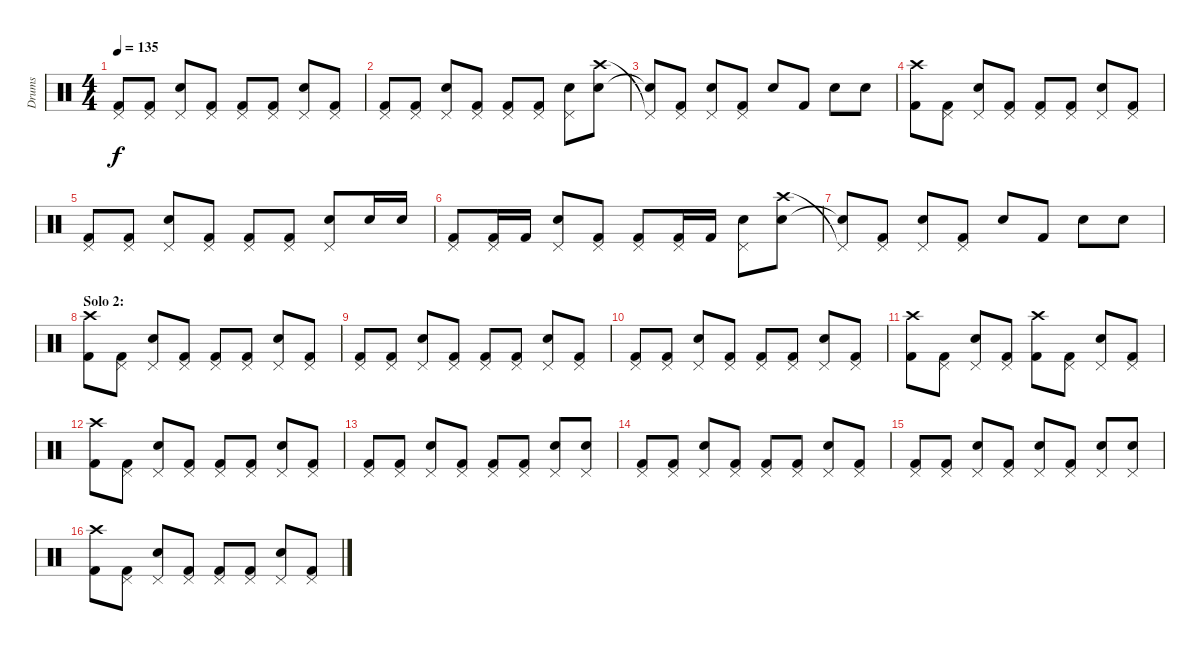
\track ("Drums" "Drums") {instrument percussion}
\staff {score}
\articulation defaults
\ts (4 4)
\tempo 135
\clef neutral
\ks c
("Pedal Hi-Hat (hit)" "Kick (hit) 2").8{dy f} ("Pedal Hi-Hat (hit)" "Kick (hit) 2").8 ("Pedal Hi-Hat (hit)" "Snare (hit) 2").8 ("Pedal Hi-Hat (hit)" "Kick (hit) 2").8 ("Pedal Hi-Hat (hit)" "Kick (hit) 2").8 ("Pedal Hi-Hat (hit)" "Kick (hit) 2").8 ("Pedal Hi-Hat (hit)" "Snare (hit) 2").8 ("Pedal Hi-Hat (hit)" "Kick (hit) 2").8 |
("Pedal Hi-Hat (hit)" "Kick (hit) 2").8 ("Pedal Hi-Hat (hit)" "Kick (hit) 2").8 ("Pedal Hi-Hat (hit)" "Snare (hit) 2").8 ("Pedal Hi-Hat (hit)" "Kick (hit) 2").8 ("Pedal Hi-Hat (hit)" "Kick (hit) 2").8 ("Pedal Hi-Hat (hit)" "Kick (hit) 2").8 ("Pedal Hi-Hat (hit)" "Snare (hit) 2").8 ("Crash high (hit)" "Snare (hit) 2").8 |
("Pedal Hi-Hat (hit)"{t} "Snare (hit)"{t}).8 ("Pedal Hi-Hat (hit)" "Kick (hit) 2").8 ("Pedal Hi-Hat (hit)" "Snare (hit) 2").8 ("Pedal Hi-Hat (hit)" "Kick (hit) 2").8 "Snare (hit) 2".8 "Kick (hit) 2".8 "Snare (hit) 2".8 "Snare (hit) 2".8 |
("Crash high (hit)" "Kick (hit) 2").8 ("Pedal Hi-Hat (hit)" "Kick (hit) 2").8 ("Pedal Hi-Hat (hit)" "Snare (hit) 2").8 ("Pedal Hi-Hat (hit)" "Kick (hit) 2").8 ("Pedal Hi-Hat (hit)" "Kick (hit) 2").8 ("Pedal Hi-Hat (hit)" "Kick (hit) 2").8 ("Pedal Hi-Hat (hit)" "Snare (hit) 2").8 ("Pedal Hi-Hat (hit)" "Kick (hit) 2").8 |
("Pedal Hi-Hat (hit)" "Kick (hit) 2").8 ("Pedal Hi-Hat (hit)" "Kick (hit) 2").8 ("Pedal Hi-Hat (hit)" "Snare (hit) 2").8 ("Pedal Hi-Hat (hit)" "Kick (hit) 2").8 ("Pedal Hi-Hat (hit)" "Kick (hit) 2").8 ("Pedal Hi-Hat (hit)" "Kick (hit) 2").8 ("Pedal Hi-Hat (hit)" "Snare (hit) 2").8 "Snare (hit) 2".16 "Snare (hit) 2".16 |
("Pedal Hi-Hat (hit)" "Kick (hit) 2").8 ("Pedal Hi-Hat (hit)" "Kick (hit) 2").16 "Kick (hit) 2".16 ("Pedal Hi-Hat (hit)" "Snare (hit) 2").8 ("Pedal Hi-Hat (hit)" "Kick (hit) 2").8 ("Pedal Hi-Hat (hit)" "Kick (hit) 2").8 ("Pedal Hi-Hat (hit)" "Kick (hit) 2").16 "Kick (hit) 2".16 ("Pedal Hi-Hat (hit)" "Snare (hit) 2").8 ("Crash high (hit)" "Snare (hit) 2").8 |
("Pedal Hi-Hat (hit)"{t} "Snare (hit)"{t}).8 ("Pedal Hi-Hat (hit)" "Kick (hit) 2").8 ("Pedal Hi-Hat (hit)" "Snare (hit) 2").8 ("Pedal Hi-Hat (hit)" "Kick (hit) 2").8 "Snare (hit) 2".8 "Kick (hit) 2".8 "Snare (hit) 2".8 "Snare (hit) 2".8 |
\section ("" "Solo 2:")
("Crash high (hit)" "Kick (hit) 2").8 ("Pedal Hi-Hat (hit)" "Kick (hit) 2").8 ("Pedal Hi-Hat (hit)" "Snare (hit) 2").8 ("Pedal Hi-Hat (hit)" "Kick (hit) 2").8 ("Pedal Hi-Hat (hit)" "Kick (hit) 2").8 ("Pedal Hi-Hat (hit)" "Kick (hit) 2").8 ("Pedal Hi-Hat (hit)" "Snare (hit) 2").8 ("Pedal Hi-Hat (hit)" "Kick (hit) 2").8 |
("Pedal Hi-Hat (hit)" "Kick (hit) 2").8 ("Pedal Hi-Hat (hit)" "Kick (hit) 2").8 ("Pedal Hi-Hat (hit)" "Snare (hit) 2").8 ("Pedal Hi-Hat (hit)" "Kick (hit) 2").8 ("Pedal Hi-Hat (hit)" "Kick (hit) 2").8 ("Pedal Hi-Hat (hit)" "Kick (hit) 2").8 ("Pedal Hi-Hat (hit)" "Snare (hit) 2").8 ("Pedal Hi-Hat (hit)" "Kick (hit) 2").8 |
("Pedal Hi-Hat (hit)" "Kick (hit) 2").8 ("Pedal Hi-Hat (hit)" "Kick (hit) 2").8 ("Pedal Hi-Hat (hit)" "Snare (hit) 2").8 ("Pedal Hi-Hat (hit)" "Kick (hit) 2").8 ("Pedal Hi-Hat (hit)" "Kick (hit) 2").8 ("Pedal Hi-Hat (hit)" "Kick (hit) 2").8 ("Pedal Hi-Hat (hit)" "Snare (hit) 2").8 ("Pedal Hi-Hat (hit)" "Kick (hit) 2").8 |
("Crash high (hit)" "Kick (hit) 2").8 ("Pedal Hi-Hat (hit)" "Kick (hit) 2").8 ("Pedal Hi-Hat (hit)" "Snare (hit) 2").8 ("Pedal Hi-Hat (hit)" "Kick (hit) 2").8 ("Crash high (hit)" "Kick (hit) 2").8 ("Pedal Hi-Hat (hit)" "Kick (hit) 2").8 ("Pedal Hi-Hat (hit)" "Snare (hit) 2").8 ("Pedal Hi-Hat (hit)" "Kick (hit) 2").8 |
("Crash high (hit)" "Kick (hit) 2").8 ("Pedal Hi-Hat (hit)" "Kick (hit) 2").8 ("Pedal Hi-Hat (hit)" "Snare (hit) 2").8 ("Pedal Hi-Hat (hit)" "Kick (hit) 2").8 ("Pedal Hi-Hat (hit)" "Kick (hit) 2").8 ("Pedal Hi-Hat (hit)" "Kick (hit) 2").8 ("Pedal Hi-Hat (hit)" "Snare (hit) 2").8 ("Pedal Hi-Hat (hit)" "Kick (hit) 2").8 |
("Pedal Hi-Hat (hit)" "Kick (hit) 2").8 ("Pedal Hi-Hat (hit)" "Kick (hit) 2").8 ("Pedal Hi-Hat (hit)" "Snare (hit) 2").8 ("Pedal Hi-Hat (hit)" "Kick (hit) 2").8 ("Pedal Hi-Hat (hit)" "Kick (hit) 2").8 ("Pedal Hi-Hat (hit)" "Kick (hit) 2").8 ("Pedal Hi-Hat (hit)" "Snare (hit) 2").8 ("Pedal Hi-Hat (hit)" "Snare (hit) 2").8 |
("Pedal Hi-Hat (hit)" "Kick (hit) 2").8 ("Pedal Hi-Hat (hit)" "Kick (hit) 2").8 ("Pedal Hi-Hat (hit)" "Snare (hit) 2").8 ("Pedal Hi-Hat (hit)" "Kick (hit) 2").8 ("Pedal Hi-Hat (hit)" "Kick (hit) 2").8 ("Pedal Hi-Hat (hit)" "Kick (hit) 2").8 ("Pedal Hi-Hat (hit)" "Snare (hit) 2").8 ("Pedal Hi-Hat (hit)" "Kick (hit) 2").8 |
("Pedal Hi-Hat (hit)" "Kick (hit) 2").8 ("Pedal Hi-Hat (hit)" "Kick (hit) 2").8 ("Pedal Hi-Hat (hit)" "Snare (hit) 2").8 ("Pedal Hi-Hat (hit)" "Kick (hit) 2").8 ("Pedal Hi-Hat (hit)" "Snare (hit) 2").8 ("Pedal Hi-Hat (hit)" "Kick (hit) 2").8 ("Pedal Hi-Hat (hit)" "Snare (hit) 2").8 ("Pedal Hi-Hat (hit)" "Snare (hit) 2").8 |
("Crash high (hit)" "Kick (hit) 2").8 ("Pedal Hi-Hat (hit)" "Kick (hit) 2").8 ("Pedal Hi-Hat (hit)" "Snare (hit) 2").8 ("Pedal Hi-Hat (hit)" "Kick (hit) 2").8 ("Pedal Hi-Hat (hit)" "Kick (hit) 2").8 ("Pedal Hi-Hat (hit)" "Kick (hit) 2").8 ("Pedal Hi-Hat (hit)" "Snare (hit) 2").8 ("Pedal Hi-Hat (hit)" "Kick (hit) 2").8
